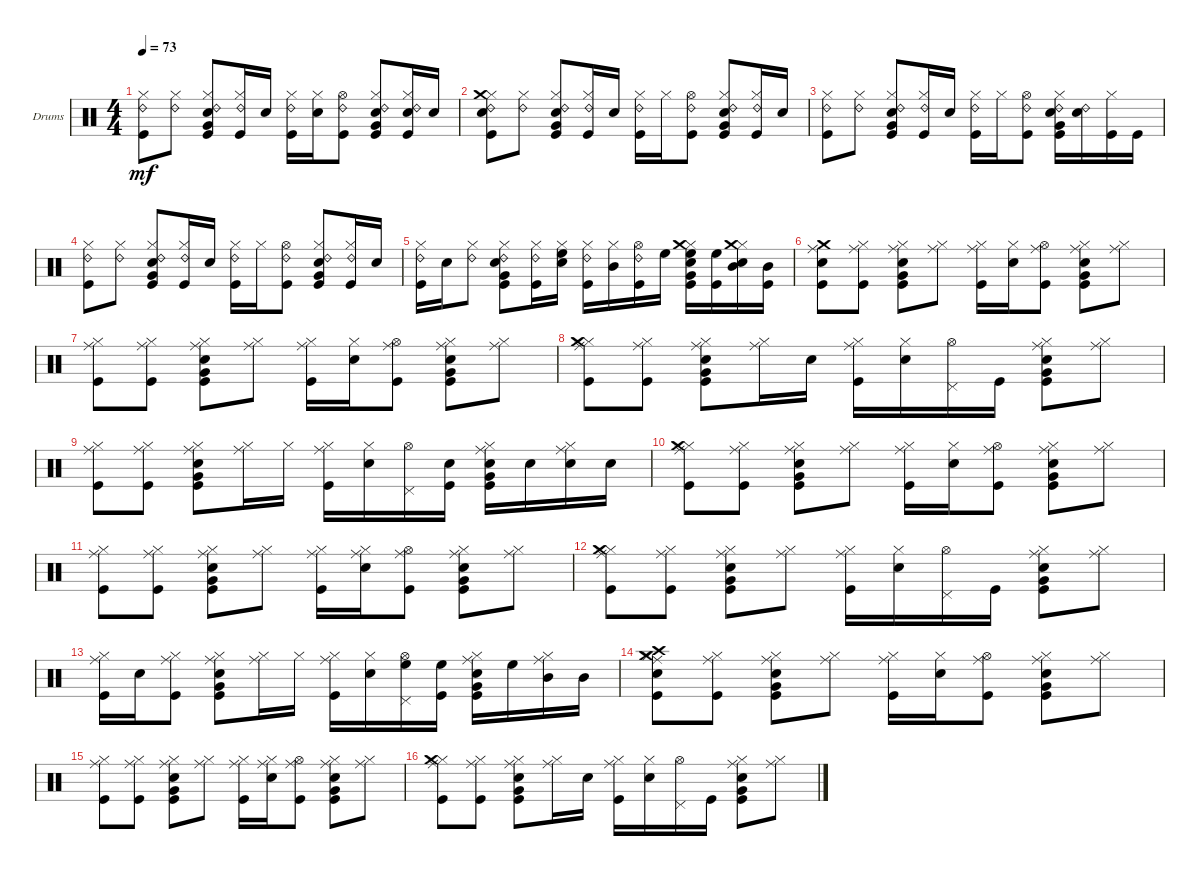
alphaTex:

\bracketExtendMode groupsimilarinstruments
\firstSystemTrackNameOrientation horizontal
\otherSystemsTrackNameOrientation horizontal
\track ("Drums" "Drums") {instrument percussion}
\staff {score}
\articulation defaults
\ts (4 4)
\tempo 73
\clef neutral
\ks c
("Kick (hit)" "Hi-Hat (closed)" "Ride (bell) 2").8{dy mf} ("Hi-Hat (closed)" "Ride (bell) 2").8 ("Kick (hit)" "Snare (hit) 2" "Hi-Hat (closed)" "Very Low Tom (hit)" "Ride (bell) 2").8 ("Hi-Hat (closed)" "Kick (hit)" "Ride (bell) 2").16 "Snare (hit) 2".16 ("Kick (hit)" "Hi-Hat (closed)" "Ride (bell) 2").16 ("Snare (hit) 2" "Hi-Hat (closed)").16 ("Hi-Hat (open)" "Kick (hit)" "Ride (bell) 2").8 ("Kick (hit)" "Snare (hit) 2" "Hi-Hat (closed)" "Very Low Tom (hit)" "Ride (bell) 2").8 ("Snare (hit) 2" "Hi-Hat (closed)" "Kick (hit)" "Ride (bell) 2").16 "Snare (hit) 2".16 |
("Kick (hit)" "Snare (hit) 2" "Hi-Hat (closed)" "Crash medium (hit)" "Ride (bell) 2").8 ("Hi-Hat (closed)" "Ride (bell) 2").8 ("Kick (hit)" "Snare (hit) 2" "Hi-Hat (closed)" "Very Low Tom (hit)" "Ride (bell) 2").8 ("Hi-Hat (closed)" "Kick (hit)" "Ride (bell) 2").16 "Snare (hit) 2".16 ("Kick (hit)" "Hi-Hat (closed)" "Ride (bell) 2").16 "Hi-Hat (closed)".16 ("Hi-Hat (open)" "Kick (hit)" "Ride (bell) 2").8 ("Kick (hit)" "Snare (hit) 2" "Hi-Hat (closed)" "Very Low Tom (hit)" "Ride (bell) 2").8 ("Hi-Hat (closed)" "Kick (hit)" "Ride (bell) 2").16 "Snare (hit) 2".16 |
("Kick (hit)" "Hi-Hat (closed)" "Ride (bell) 2").8 ("Hi-Hat (closed)" "Ride (bell) 2").8 ("Kick (hit)" "Snare (hit) 2" "Hi-Hat (closed)" "Very Low Tom (hit)" "Ride (bell) 2").8 ("Hi-Hat (closed)" "Kick (hit)" "Ride (bell) 2").16 "Snare (hit) 2".16 ("Kick (hit)" "Hi-Hat (closed)" "Ride (bell) 2").16 "Hi-Hat (closed)".16 ("Hi-Hat (open)" "Kick (hit)" "Ride (bell) 2").8 ("Kick (hit)" "Snare (hit) 2" "Hi-Hat (closed)" "Very Low Tom (hit)" "Ride (bell) 2").16 ("Snare (hit) 2" "Ride (bell) 2").16 ("Hi-Hat (closed)" "Kick (hit)").16 "Kick (hit)".16 |
("Kick (hit)" "Hi-Hat (closed)" "Ride (bell) 2").8 ("Hi-Hat (closed)" "Ride (bell) 2").8 ("Kick (hit)" "Snare (hit) 2" "Hi-Hat (closed)" "Very Low Tom (hit)" "Ride (bell) 2").8 ("Hi-Hat (closed)" "Kick (hit)" "Ride (bell) 2").16 "Snare (hit) 2".16 ("Kick (hit)" "Hi-Hat (closed)" "Ride (bell) 2").16 "Hi-Hat (closed)".16 ("Hi-Hat (open)" "Kick (hit)" "Ride (bell) 2").8 ("Kick (hit)" "Snare (hit) 2" "Hi-Hat (closed)" "Very Low Tom (hit)" "Ride (bell) 2").8 ("Hi-Hat (closed)" "Kick (hit)" "Ride (bell) 2").16 "Snare (hit) 2".16 |
("Kick (hit)" "Hi-Hat (closed)" "Ride (bell) 2").16 "Snare (hit) 2".16 ("Hi-Hat (closed)" "Ride (bell) 2").8 ("Kick (hit)" "Snare (hit) 2" "Hi-Hat (closed)" "Very Low Tom (hit)" "Ride (bell) 2").8 ("Hi-Hat (closed)" "Kick (hit)" "Ride (bell) 2").16 ("Hi-Hat (closed)" "High Floor Tom (hit)" "Snare (hit) 2").16 ("Kick (hit)" "Hi-Hat (closed)" "Ride (bell) 2").16 ("Hi-Hat (closed)" "Mid Tom (hit)").16 ("Hi-Hat (open)" "Kick (hit)" "Ride (bell) 2").16 "High Floor Tom (hit)".16 ("Kick (hit)" "Hi-Hat (closed)" "Very Low Tom (hit)" "High Floor Tom (hit)" "Snare (hit) 2" "Crash medium (hit)").16 ("High Floor Tom (hit)" "Kick (hit)").16 ("Hi-Hat (closed)" "Mid Tom (hit)" "Snare (hit) 2" "Crash medium (hit)").16 ("Mid Tom (hit)" "Kick (hit)").16 |
("Kick (hit)" "Snare (hit) 2" "Crash medium (hit)" "Ride (middle)").8 ("Hi-Hat (closed)" "Kick (hit)" "Ride (middle)").8 ("Kick (hit)" "Snare (hit) 2" "Hi-Hat (closed)" "Very Low Tom (hit)" "Ride (middle)").8 ("Hi-Hat (closed)" "Ride (middle)").8 ("Kick (hit)" "Hi-Hat (closed)" "Ride (middle)").16 ("Hi-Hat (closed)" "Snare (hit) 2").16 ("Hi-Hat (open)" "Kick (hit)" "Ride (middle)").8 ("Kick (hit)" "Snare (hit) 2" "Hi-Hat (closed)" "Very Low Tom (hit)" "Ride (middle)").8 ("Hi-Hat (closed)" "Ride (middle)").8 |
("Kick (hit)" "Hi-Hat (closed)" "Ride (middle)").8 ("Hi-Hat (closed)" "Kick (hit)" "Ride (middle)").8 ("Kick (hit)" "Snare (hit) 2" "Hi-Hat (closed)" "Very Low Tom (hit)" "Ride (middle)").8 ("Hi-Hat (closed)" "Ride (middle)").8 ("Kick (hit)" "Hi-Hat (closed)" "Ride (middle)").16 ("Hi-Hat (closed)" "Snare (hit) 2").16 ("Hi-Hat (open)" "Kick (hit)" "Ride (middle)").8 ("Kick (hit)" "Snare (hit) 2" "Hi-Hat (closed)" "Very Low Tom (hit)" "Ride (middle)").8 ("Hi-Hat (closed)" "Ride (middle)").8 |
("Kick (hit)" "Hi-Hat (closed)" "Ride (middle)" "Crash medium (hit)").8 ("Hi-Hat (closed)" "Kick (hit)" "Ride (middle)").8 ("Kick (hit)" "Snare (hit) 2" "Hi-Hat (closed)" "Very Low Tom (hit)" "Ride (middle)").8 ("Hi-Hat (closed)" "Ride (middle)").16 "Snare (hit) 2".16 ("Kick (hit)" "Hi-Hat (closed)" "Ride (middle)").16 ("Hi-Hat (closed)" "Snare (hit) 2").16 ("Hi-Hat (open)" "Pedal Hi-Hat (hit)").16 "Kick (hit)".16 ("Kick (hit)" "Snare (hit) 2" "Hi-Hat (closed)" "Very Low Tom (hit)" "Ride (middle)").8 ("Hi-Hat (closed)" "Ride (middle)").8 |
("Kick (hit)" "Hi-Hat (closed)" "Ride (middle)").8 ("Hi-Hat (closed)" "Kick (hit)" "Ride (middle)").8 ("Kick (hit)" "Snare (hit) 2" "Hi-Hat (closed)" "Very Low Tom (hit)" "Ride (middle)").8 ("Hi-Hat (closed)" "Ride (middle)").16 "Hi-Hat (closed)".16 ("Kick (hit)" "Hi-Hat (closed)" "Ride (middle)").16 ("Hi-Hat (closed)" "Snare (hit) 2").16 ("Hi-Hat (open)" "Pedal Hi-Hat (hit)").16 ("Snare (hit) 2" "Kick (hit)").16 ("Kick (hit)" "Snare (hit) 2" "Hi-Hat (closed)" "Very Low Tom (hit)" "Ride (middle)").16 "Snare (hit) 2".16 ("Snare (hit) 2" "Hi-Hat (closed)" "Ride (middle)").16 "Snare (hit) 2".16 |
("Kick (hit)" "Hi-Hat (closed)" "Ride (middle)" "Crash medium (hit)").8 ("Hi-Hat (closed)" "Kick (hit)" "Ride (middle)").8 ("Kick (hit)" "Snare (hit) 2" "Hi-Hat (closed)" "Very Low Tom (hit)" "Ride (middle)").8 ("Hi-Hat (closed)" "Ride (middle)").8 ("Kick (hit)" "Hi-Hat (closed)" "Ride (middle)").16 ("Hi-Hat (closed)" "Snare (hit) 2").16 ("Hi-Hat (open)" "Kick (hit)" "Ride (middle)").8 ("Kick (hit)" "Snare (hit) 2" "Hi-Hat (closed)" "Very Low Tom (hit)" "Ride (middle)").8 ("Hi-Hat (closed)" "Ride (middle)").8 |
("Kick (hit)" "Hi-Hat (closed)" "Ride (middle)").8 ("Hi-Hat (closed)" "Kick (hit)" "Ride (middle)").8 ("Kick (hit)" "Snare (hit) 2" "Hi-Hat (closed)" "Very Low Tom (hit)" "Ride (middle)").8 ("Hi-Hat (closed)" "Ride (middle)").8 ("Kick (hit)" "Hi-Hat (closed)" "Ride (middle)").16 ("Hi-Hat (closed)" "Snare (hit) 2" "Ride (middle)").16 ("Hi-Hat (open)" "Kick (hit)" "Ride (middle)").8 ("Kick (hit)" "Snare (hit) 2" "Hi-Hat (closed)" "Very Low Tom (hit)" "Ride (middle)").8 ("Hi-Hat (closed)" "Ride (middle)").8 |
("Kick (hit)" "Hi-Hat (closed)" "Ride (middle)" "Crash medium (hit)").8 ("Hi-Hat (closed)" "Kick (hit)" "Ride (middle)").8 ("Kick (hit)" "Snare (hit) 2" "Hi-Hat (closed)" "Very Low Tom (hit)" "Ride (middle)").8 ("Hi-Hat (closed)" "Ride (middle)").8 ("Kick (hit)" "Hi-Hat (closed)" "Ride (middle)").16 ("Hi-Hat (closed)" "Snare (hit) 2").16 ("Hi-Hat (open)" "Pedal Hi-Hat (hit)").16 "Kick (hit)".16 ("Kick (hit)" "Snare (hit) 2" "Hi-Hat (closed)" "Very Low Tom (hit)" "Ride (middle)").8 ("Hi-Hat (closed)" "Ride (middle)").8 |
("Kick (hit)" "Hi-Hat (closed)" "Ride (middle)").16 "Snare (hit) 2".16 ("Hi-Hat (closed)" "Kick (hit)" "Ride (middle)").8 ("Kick (hit)" "Snare (hit) 2" "Hi-Hat (closed)" "Very Low Tom (hit)" "Ride (middle)").8 ("Hi-Hat (closed)" "Ride (middle)").16 "Hi-Hat (closed)".16 ("Kick (hit)" "Hi-Hat (closed)" "Ride (middle)").16 ("Hi-Hat (closed)" "Snare (hit) 2").16 ("Hi-Hat (open)" "High Floor Tom (hit)" "Pedal Hi-Hat (hit)").16 ("High Floor Tom (hit)" "Kick (hit)").16 ("Kick (hit)" "Hi-Hat (closed)" "Very Low Tom (hit)" "Snare (hit) 2" "Ride (middle)").16 "High Floor Tom (hit)".16 ("Hi-Hat (closed)" "Mid Tom (hit)" "Ride (middle)").16 "Mid Tom (hit)".16 |
("Kick (hit)" "Snare (hit) 2" "Hi-Hat (closed)" "Crash medium (hit)" "Crash high (hit)" "Ride (middle)").8 ("Hi-Hat (closed)" "Kick (hit)" "Ride (middle)").8 ("Kick (hit)" "Snare (hit) 2" "Hi-Hat (closed)" "Very Low Tom (hit)" "Ride (middle)").8 ("Hi-Hat (closed)" "Ride (middle)").8 ("Kick (hit)" "Hi-Hat (closed)" "Ride (middle)").16 ("Hi-Hat (closed)" "Snare (hit) 2").16 ("Hi-Hat (open)" "Kick (hit)" "Ride (middle)").8 ("Kick (hit)" "Snare (hit) 2" "Hi-Hat (closed)" "Very Low Tom (hit)" "Ride (middle)").8 ("Hi-Hat (closed)" "Ride (middle)").8 |
("Kick (hit)" "Hi-Hat (closed)" "Ride (middle)").8 ("Hi-Hat (closed)" "Kick (hit)" "Ride (middle)").8 ("Kick (hit)" "Snare (hit) 2" "Hi-Hat (closed)" "Very Low Tom (hit)" "Ride (middle)").8 ("Hi-Hat (closed)" "Ride (middle)").8 ("Kick (hit)" "Hi-Hat (closed)" "Ride (middle)").16 ("Hi-Hat (closed)" "Snare (hit) 2" "Ride (middle)").16 ("Hi-Hat (open)" "Kick (hit)" "Ride (middle)").8 ("Kick (hit)" "Snare (hit) 2" "Hi-Hat (closed)" "Very Low Tom (hit)" "Ride (middle)").8 ("Hi-Hat (closed)" "Ride (middle)").8 |
("Kick (hit)" "Hi-Hat (closed)" "Ride (middle)" "Crash medium (hit)").8 ("Hi-Hat (closed)" "Kick (hit)" "Ride (middle)").8 ("Kick (hit)" "Snare (hit) 2" "Hi-Hat (closed)" "Very Low Tom (hit)" "Ride (middle)").8 ("Hi-Hat (closed)" "Ride (middle)").16 "Snare (hit) 2".16 ("Kick (hit)" "Hi-Hat (closed)" "Ride (middle)").16 ("Hi-Hat (closed)" "Snare (hit) 2").16 ("Hi-Hat (open)" "Pedal Hi-Hat (hit)").16 "Kick (hit)".16 ("Kick (hit)" "Snare (hit) 2" "Hi-Hat (closed)" "Very Low Tom (hit)" "Ride (middle)").8 ("Hi-Hat (closed)" "Ride (middle)").8
